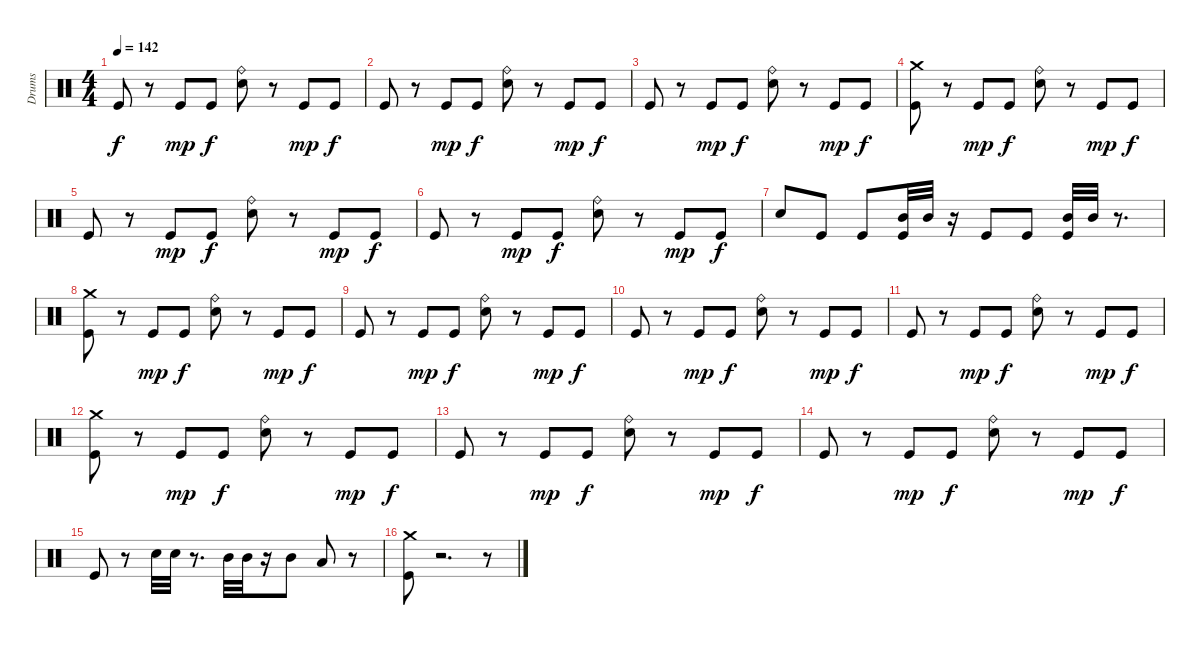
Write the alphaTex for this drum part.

\track ("Drums" "Drums") {instrument percussion}
\staff {score}
\articulation defaults
\ts (4 4)
\tempo 142
\clef neutral
\ks c "Kick (hit)".8{dy f}
r.8 "Kick (hit)".8{dy mp} "Kick (hit)".8{dy f} ("Ride (bell)" "Electric Snare (hit)").8 r.8 "Kick (hit)".8{dy mp} "Kick (hit)".8{dy f} |
"Kick (hit)".8 r.8 "Kick (hit)".8{dy mp} "Kick (hit)".8{dy f} ("Ride (bell)" "Electric Snare (hit)").8 r.8 "Kick (hit)".8{dy mp} "Kick (hit)".8{dy f} |
"Kick (hit)".8 r.8 "Kick (hit)".8{dy mp} "Kick (hit)".8{dy f} ("Ride (bell)" "Electric Snare (hit)").8 r.8 "Kick (hit)".8{dy mp} "Kick (hit)".8{dy f} |
("Crash medium (hit)" "Kick (hit)").8 r.8 "Kick (hit)".8{dy mp} "Kick (hit)".8{dy f} ("Ride (bell)" "Electric Snare (hit)").8 r.8 "Kick (hit)".8{dy mp} "Kick (hit)".8{dy f} |
"Kick (hit)".8 r.8 "Kick (hit)".8{dy mp} "Kick (hit)".8{dy f} ("Ride (bell)" "Electric Snare (hit)").8 r.8 "Kick (hit)".8{dy mp} "Kick (hit)".8{dy f} |
"Kick (hit)".8 r.8 "Kick (hit)".8{dy mp} "Kick (hit)".8{dy f} ("Ride (bell)" "Electric Snare (hit)").8 r.8 "Kick (hit)".8{dy mp} "Kick (hit)".8{dy f} |
"Electric Snare (hit)".8 "Kick (hit)".8 "Kick (hit)".8 ("Kick (hit)" "Mid Tom (hit)").32 "Mid Tom (hit)".32 r.16 "Kick (hit)".8 "Kick (hit)".8 ("Kick (hit)" "Mid Tom (hit)").32 "Mid Tom (hit)".32 r.8{d} |
("Crash medium (hit)" "Kick (hit)").8 r.8 "Kick (hit)".8{dy mp} "Kick (hit)".8{dy f} ("Ride (bell)" "Electric Snare (hit)").8 r.8 "Kick (hit)".8{dy mp} "Kick (hit)".8{dy f} |
"Kick (hit)".8 r.8 "Kick (hit)".8{dy mp} "Kick (hit)".8{dy f} ("Ride (bell)" "Electric Snare (hit)").8 r.8 "Kick (hit)".8{dy mp} "Kick (hit)".8{dy f} |
"Kick (hit)".8 r.8 "Kick (hit)".8{dy mp} "Kick (hit)".8{dy f} ("Ride (bell)" "Electric Snare (hit)").8 r.8 "Kick (hit)".8{dy mp} "Kick (hit)".8{dy f} |
"Kick (hit)".8 r.8 "Kick (hit)".8{dy mp} "Kick (hit)".8{dy f} ("Ride (bell)" "Electric Snare (hit)").8 r.8 "Kick (hit)".8{dy mp} "Kick (hit)".8{dy f} |
("Crash medium (hit)" "Kick (hit)").8 r.8 "Kick (hit)".8{dy mp} "Kick (hit)".8{dy f} ("Ride (bell)" "Electric Snare (hit)").8 r.8 "Kick (hit)".8{dy mp} "Kick (hit)".8{dy f} |
"Kick (hit)".8 r.8 "Kick (hit)".8{dy mp} "Kick (hit)".8{dy f} ("Ride (bell)" "Electric Snare (hit)").8 r.8 "Kick (hit)".8{dy mp} "Kick (hit)".8{dy f} |
"Kick (hit)".8 r.8 "Kick (hit)".8{dy mp} "Kick (hit)".8{dy f} ("Ride (bell)" "Electric Snare (hit)").8 r.8 "Kick (hit)".8{dy mp} "Kick (hit)".8{dy f} |
"Kick (hit)".8 r.8 "Electric Snare (hit)".32 "Electric Snare (hit)".32 r.8{d} "Mid Tom (hit)".32 "Mid Tom (hit)".32 r.16 "Mid Tom (hit)".8 "Low Tom (hit)".8 r.8 |
("Crash medium (hit)" "Kick (hit)").8 r.2{d} r.8
